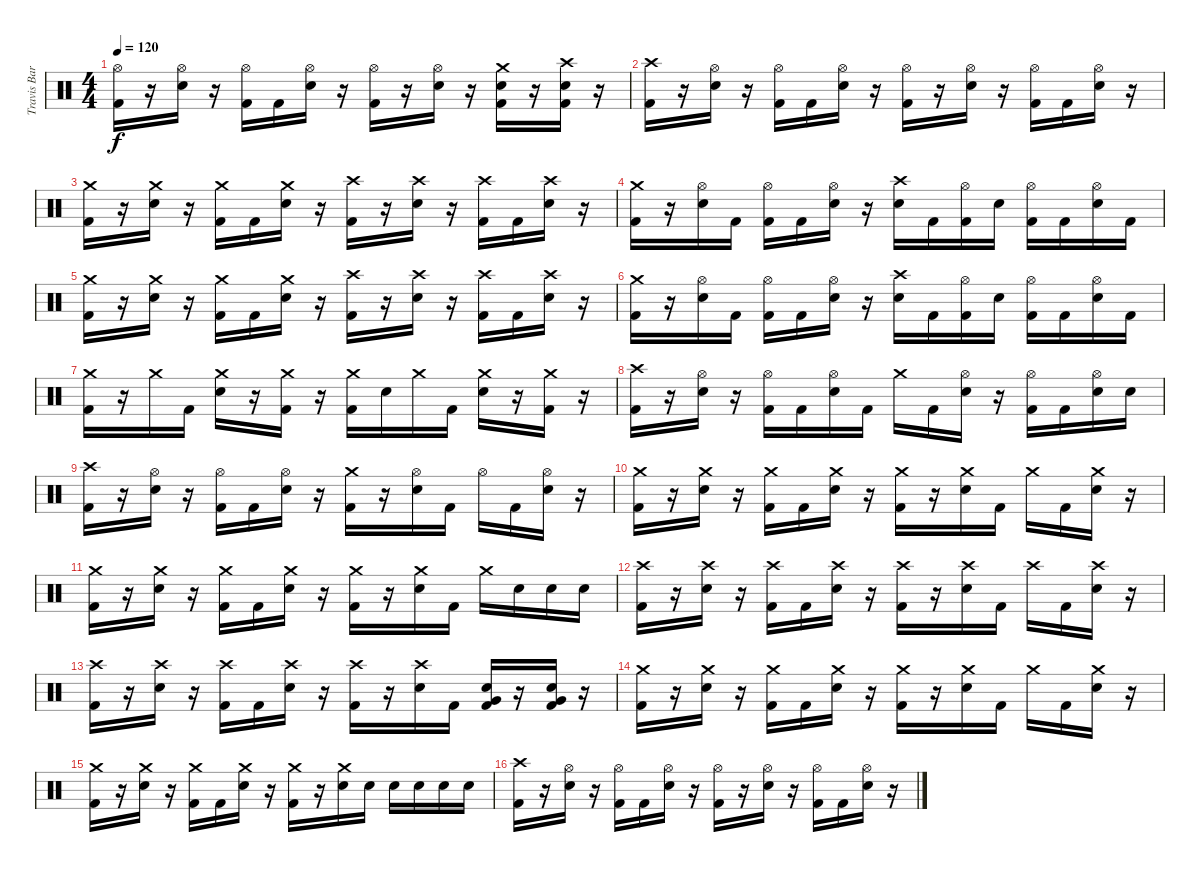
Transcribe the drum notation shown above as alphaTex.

\track ("Travis Barker Drums" "Travis Bar") {instrument percussion}
\staff {score}
\articulation defaults
\ts (4 4)
\tempo 120
\clef neutral
\ks c
("Hi-Hat (open)" "Kick (hit) 2").16{dy f} r.16 ("Hi-Hat (open)" "Snare (hit) 2").16 r.16 ("Hi-Hat (open)" "Kick (hit) 2").16 "Kick (hit) 2".16 ("Hi-Hat (open)" "Snare (hit) 2").16 r.16 ("Hi-Hat (open)" "Kick (hit) 2").16 r.16 ("Hi-Hat (open)" "Snare (hit) 2").16 r.16 ("Crash medium (hit)" "Snare (hit) 2" "Kick (hit) 2").16 r.16 ("Crash high (hit)" "Snare (hit) 2" "Kick (hit) 2").16 r.16 |
("Crash high (hit)" "Kick (hit) 2").16 r.16 ("Hi-Hat (open)" "Snare (hit) 2").16 r.16 ("Hi-Hat (open)" "Kick (hit) 2").16 "Kick (hit) 2".16 ("Hi-Hat (open)" "Snare (hit) 2").16 r.16 ("Hi-Hat (open)" "Kick (hit) 2").16 r.16 ("Hi-Hat (open)" "Snare (hit) 2").16 r.16 ("Hi-Hat (open)" "Kick (hit) 2").16 "Kick (hit) 2".16 ("Hi-Hat (open)" "Snare (hit) 2").16 r.16 |
("Crash medium (hit)" "Kick (hit) 2").16 r.16 ("Crash medium (hit)" "Snare (hit) 2").16 r.16 ("Crash medium (hit)" "Kick (hit) 2").16 "Kick (hit) 2".16 ("Crash medium (hit)" "Snare (hit) 2").16 r.16 ("Crash high (hit)" "Kick (hit) 2").16 r.16 ("Crash high (hit)" "Snare (hit) 2").16 r.16 ("Crash high (hit)" "Kick (hit) 2").16 "Kick (hit) 2".16 ("Crash high (hit)" "Snare (hit) 2").16 r.16 |
("Crash medium (hit)" "Kick (hit) 2").16 r.16 ("Hi-Hat (open)" "Snare (hit) 2").16 "Kick (hit) 2".16 ("Hi-Hat (open)" "Kick (hit) 2").16 "Kick (hit) 2".16 ("Hi-Hat (open)" "Snare (hit) 2").16 r.16 ("Crash high (hit)" "Snare (hit) 2").16 "Kick (hit) 2".16 ("Hi-Hat (open)" "Kick (hit) 2").16 "Snare (hit) 2".16 ("Hi-Hat (open)" "Kick (hit) 2").16 "Kick (hit) 2".16 ("Hi-Hat (open)" "Snare (hit) 2").16 "Kick (hit) 2".16 |
("Crash medium (hit)" "Kick (hit) 2").16 r.16 ("Crash medium (hit)" "Snare (hit) 2").16 r.16 ("Crash medium (hit)" "Kick (hit) 2").16 "Kick (hit) 2".16 ("Crash medium (hit)" "Snare (hit) 2").16 r.16 ("Crash high (hit)" "Kick (hit) 2").16 r.16 ("Crash high (hit)" "Snare (hit) 2").16 r.16 ("Crash high (hit)" "Kick (hit) 2").16 "Kick (hit) 2".16 ("Crash high (hit)" "Snare (hit) 2").16 r.16 |
("Crash medium (hit)" "Kick (hit) 2").16 r.16 ("Hi-Hat (open)" "Snare (hit) 2").16 "Kick (hit) 2".16 ("Hi-Hat (open)" "Kick (hit) 2").16 "Kick (hit) 2".16 ("Hi-Hat (open)" "Snare (hit) 2").16 r.16 ("Crash high (hit)" "Snare (hit) 2").16 "Kick (hit) 2".16 ("Hi-Hat (open)" "Kick (hit) 2").16 "Snare (hit) 2".16 ("Hi-Hat (open)" "Kick (hit) 2").16 "Kick (hit) 2".16 ("Hi-Hat (open)" "Snare (hit) 2").16 "Kick (hit) 2".16 |
("Crash medium (hit)" "Kick (hit) 2").16 r.16 "Crash medium (hit)".16 "Kick (hit) 2".16 ("Crash medium (hit)" "Snare (hit) 2").16 r.16 ("Crash medium (hit)" "Kick (hit) 2").16 r.16 ("Crash medium (hit)" "Kick (hit) 2").16 "Snare (hit) 2".16 "Crash medium (hit)".16 "Kick (hit) 2".16 ("Crash medium (hit)" "Snare (hit) 2").16 r.16 ("Crash medium (hit)" "Kick (hit) 2").16 r.16 |
("Crash high (hit)" "Kick (hit) 2").16 r.16 ("Hi-Hat (open)" "Snare (hit) 2").16 r.16 ("Hi-Hat (open)" "Kick (hit) 2").16 "Kick (hit) 2".16 ("Hi-Hat (open)" "Snare (hit) 2").16 "Kick (hit) 2".16 "Crash medium (hit)".16 "Kick (hit) 2".16 ("Hi-Hat (open)" "Snare (hit) 2").16 r.16 ("Hi-Hat (open)" "Kick (hit) 2").16 "Kick (hit) 2".16 ("Hi-Hat (open)" "Snare (hit) 2").16 "Snare (hit) 2".16 |
("Crash high (hit)" "Kick (hit) 2").16 r.16 ("Hi-Hat (open)" "Snare (hit) 2").16 r.16 ("Hi-Hat (open)" "Kick (hit) 2").16 "Kick (hit) 2".16 ("Hi-Hat (open)" "Snare (hit) 2").16 r.16 ("Crash medium (hit)" "Kick (hit) 2").16 r.16 ("Hi-Hat (open)" "Snare (hit) 2").16 "Kick (hit) 2".16 "Hi-Hat (open)".16 "Kick (hit) 2".16 ("Hi-Hat (open)" "Snare (hit) 2").16 r.16 |
("Crash medium (hit)" "Kick (hit) 2").16 r.16 ("Crash medium (hit)" "Snare (hit) 2").16 r.16 ("Crash medium (hit)" "Kick (hit) 2").16 "Kick (hit) 2".16 ("Crash medium (hit)" "Snare (hit) 2").16 r.16 ("Crash medium (hit)" "Kick (hit) 2").16 r.16 ("Crash medium (hit)" "Snare (hit) 2").16 "Kick (hit) 2".16 "Crash medium (hit)".16 "Kick (hit) 2".16 ("Crash medium (hit)" "Snare (hit) 2").16 r.16 |
("Crash medium (hit)" "Kick (hit) 2").16 r.16 ("Crash medium (hit)" "Snare (hit) 2").16 r.16 ("Crash medium (hit)" "Kick (hit) 2").16 "Kick (hit) 2".16 ("Crash medium (hit)" "Snare (hit) 2").16 r.16 ("Crash medium (hit)" "Kick (hit) 2").16 r.16 ("Crash medium (hit)" "Snare (hit) 2").16 "Kick (hit) 2".16 "Crash medium (hit)".16 "Snare (hit) 2".16 "Snare (hit) 2".16 "Snare (hit) 2".16 |
("Crash high (hit)" "Kick (hit) 2").16 r.16 ("Crash high (hit)" "Snare (hit) 2").16 r.16 ("Crash high (hit)" "Kick (hit) 2").16 "Kick (hit) 2".16 ("Crash high (hit)" "Snare (hit) 2").16 r.16 ("Crash high (hit)" "Kick (hit) 2").16 r.16 ("Crash high (hit)" "Snare (hit) 2").16 "Kick (hit) 2".16 "Crash high (hit)".16 "Kick (hit) 2".16 ("Crash high (hit)" "Snare (hit) 2").16 r.16 |
("Crash high (hit)" "Kick (hit) 2").16 r.16 ("Crash high (hit)" "Snare (hit) 2").16 r.16 ("Crash high (hit)" "Kick (hit) 2").16 "Kick (hit) 2".16 ("Crash high (hit)" "Snare (hit) 2").16 r.16 ("Crash high (hit)" "Kick (hit) 2").16 r.16 ("Crash high (hit)" "Snare (hit) 2").16 "Kick (hit) 2".16 ("Very Low Tom (hit)" "Snare (hit) 2" "Kick (hit) 2").16 r.16 ("Very Low Tom (hit)" "Snare (hit) 2" "Kick (hit) 2").16 r.16 |
("Crash medium (hit)" "Kick (hit) 2").16 r.16 ("Crash medium (hit)" "Snare (hit) 2").16 r.16 ("Crash medium (hit)" "Kick (hit) 2").16 "Kick (hit) 2".16 ("Crash medium (hit)" "Snare (hit) 2").16 r.16 ("Crash medium (hit)" "Kick (hit) 2").16 r.16 ("Crash medium (hit)" "Snare (hit) 2").16 "Kick (hit) 2".16 "Crash medium (hit)".16 "Kick (hit) 2".16 ("Crash medium (hit)" "Snare (hit) 2").16 r.16 |
("Crash medium (hit)" "Kick (hit) 2").16 r.16 ("Crash medium (hit)" "Snare (hit) 2").16 r.16 ("Crash medium (hit)" "Kick (hit) 2").16 "Kick (hit) 2".16 ("Crash medium (hit)" "Snare (hit) 2").16 r.16 ("Crash medium (hit)" "Kick (hit) 2").16 r.16 ("Crash medium (hit)" "Snare (hit) 2").16 "Snare (hit) 2".16 "Snare (hit) 2".16 "Snare (hit) 2".16 "Snare (hit) 2".16 "Snare (hit) 2".16 |
("Crash high (hit)" "Kick (hit) 2").16 r.16 ("Hi-Hat (open)" "Snare (hit) 2").16 r.16 ("Hi-Hat (open)" "Kick (hit) 2").16 "Kick (hit) 2".16 ("Hi-Hat (open)" "Snare (hit) 2").16 r.16 ("Hi-Hat (open)" "Kick (hit) 2").16 r.16 ("Hi-Hat (open)" "Snare (hit) 2").16 r.16 ("Hi-Hat (open)" "Kick (hit) 2").16 "Kick (hit) 2".16 ("Hi-Hat (open)" "Snare (hit) 2").16 r.16
